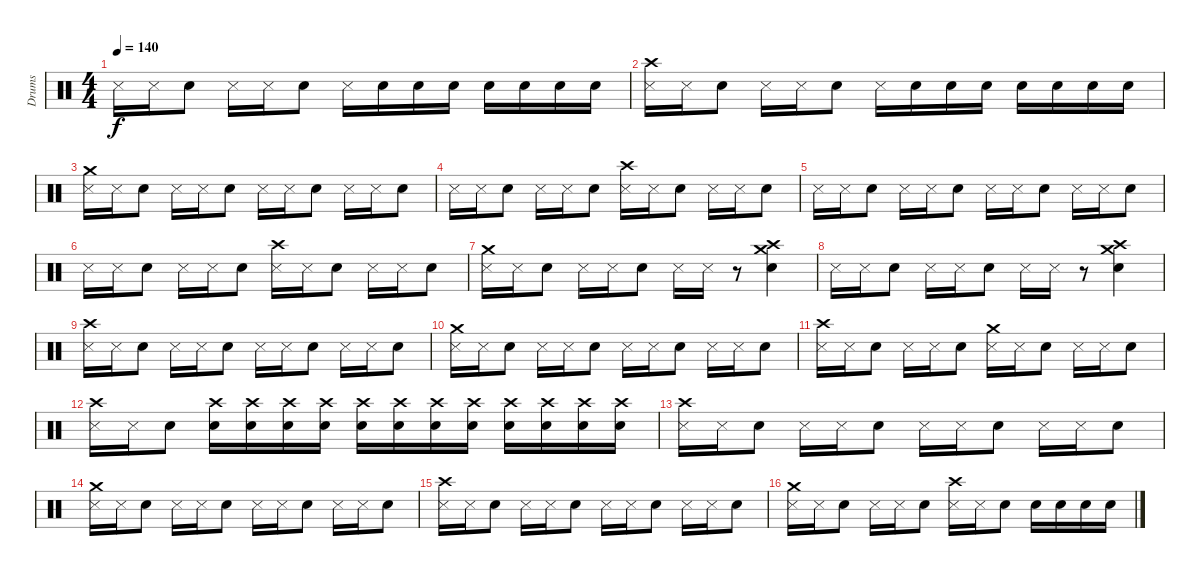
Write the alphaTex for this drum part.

\track ("Drums" "Drums") {instrument percussion}
\staff {score}
\articulation defaults
\ts (4 4)
\tempo 140
\clef neutral
\ks c "Metronome (hit)".16{dy f} "Metronome (hit)".16 "Electric Snare (hit)".8 "Metronome (hit)".16 "Metronome (hit)".16 "Electric Snare (hit)".8 "Metronome (hit)".16 "Snare (hit) 2".16 "Snare (hit) 2".16 "Snare (hit) 2".16 "Snare (hit) 2".16 "Snare (hit) 2".16 "Snare (hit) 2".16 "Snare (hit) 2".16
|
("Crash high (hit)" "Metronome (hit)").16 "Metronome (hit)".16 "Electric Snare (hit)".8 "Metronome (hit)".16 "Metronome (hit)".16 "Electric Snare (hit)".8 "Metronome (hit)".16 "Snare (hit) 2".16 "Snare (hit) 2".16 "Snare (hit) 2".16 "Snare (hit) 2".16 "Snare (hit) 2".16 "Snare (hit) 2".16 "Snare (hit) 2".16 |
("Crash medium (hit)" "Metronome (hit)").16 "Metronome (hit)".16 "Electric Snare (hit)".8 "Metronome (hit)".16 "Metronome (hit)".16 "Electric Snare (hit)".8 "Metronome (hit)".16 "Metronome (hit)".16 "Electric Snare (hit)".8 "Metronome (hit)".16 "Metronome (hit)".16 "Electric Snare (hit)".8 |
"Metronome (hit)".16 "Metronome (hit)".16 "Electric Snare (hit)".8 "Metronome (hit)".16 "Metronome (hit)".16 "Electric Snare (hit)".8 ("Crash high (hit)" "Metronome (hit)").16 "Metronome (hit)".16 "Electric Snare (hit)".8 "Metronome (hit)".16 "Metronome (hit)".16 "Electric Snare (hit)".8 |
"Metronome (hit)".16 "Metronome (hit)".16 "Electric Snare (hit)".8 "Metronome (hit)".16 "Metronome (hit)".16 "Electric Snare (hit)".8 "Metronome (hit)".16 "Metronome (hit)".16 "Electric Snare (hit)".8 "Metronome (hit)".16 "Metronome (hit)".16 "Electric Snare (hit)".8 |
"Metronome (hit)".16 "Metronome (hit)".16 "Electric Snare (hit)".8 "Metronome (hit)".16 "Metronome (hit)".16 "Electric Snare (hit)".8 ("Crash high (hit)" "Metronome (hit)").16 "Metronome (hit)".16 "Electric Snare (hit)".8 "Metronome (hit)".16 "Metronome (hit)".16 "Electric Snare (hit)".8 |
("Crash medium (hit)" "Metronome (hit)").16 "Metronome (hit)".16 "Electric Snare (hit)".8 "Metronome (hit)".16 "Metronome (hit)".16 "Electric Snare (hit)".8 "Metronome (hit)".16 "Metronome (hit)".16 r.8 ("Crash medium (hit)" "Crash high (hit)" "Electric Snare (hit)").4 |
"Metronome (hit)".16 "Metronome (hit)".16 "Electric Snare (hit)".8 "Metronome (hit)".16 "Metronome (hit)".16 "Electric Snare (hit)".8 "Metronome (hit)".16 "Metronome (hit)".16 r.8 ("Crash medium (hit)" "Crash high (hit)" "Electric Snare (hit)").4 |
("Crash high (hit)" "Metronome (hit)").16 "Metronome (hit)".16 "Electric Snare (hit)".8 "Metronome (hit)".16 "Metronome (hit)".16 "Electric Snare (hit)".8 "Metronome (hit)".16 "Metronome (hit)".16 "Electric Snare (hit)".8 "Metronome (hit)".16 "Metronome (hit)".16 "Electric Snare (hit)".8 |
("Crash medium (hit)" "Metronome (hit)").16 "Metronome (hit)".16 "Electric Snare (hit)".8 "Metronome (hit)".16 "Metronome (hit)".16 "Electric Snare (hit)".8 "Metronome (hit)".16 "Metronome (hit)".16 "Electric Snare (hit)".8 "Metronome (hit)".16 "Metronome (hit)".16 "Electric Snare (hit)".8 |
("Crash high (hit)" "Metronome (hit)").16 "Metronome (hit)".16 "Electric Snare (hit)".8 "Metronome (hit)".16 "Metronome (hit)".16 "Electric Snare (hit)".8 ("Crash medium (hit)" "Metronome (hit)").16 "Metronome (hit)".16 "Electric Snare (hit)".8 "Metronome (hit)".16 "Metronome (hit)".16 "Electric Snare (hit)".8 |
("Crash high (hit)" "Metronome (hit)").16 "Metronome (hit)".16 "Electric Snare (hit)".8 ("Crash high (hit)" "Electric Snare (hit)").16 ("Crash high (hit)" "Electric Snare (hit)").16 ("Crash high (hit)" "Electric Snare (hit)").16 ("Crash high (hit)" "Electric Snare (hit)").16 ("Crash high (hit)" "Electric Snare (hit)").16 ("Crash high (hit)" "Electric Snare (hit)").16 ("Crash high (hit)" "Electric Snare (hit)").16 ("Crash high (hit)" "Electric Snare (hit)").16 ("Crash high (hit)" "Electric Snare (hit)").16 ("Crash high (hit)" "Electric Snare (hit)").16 ("Crash high (hit)" "Electric Snare (hit)").16 ("Crash high (hit)" "Electric Snare (hit)").16 |
("Crash high (hit)" "Metronome (hit)").16 "Metronome (hit)".16 "Electric Snare (hit)".8 "Metronome (hit)".16 "Metronome (hit)".16 "Electric Snare (hit)".8 "Metronome (hit)".16 "Metronome (hit)".16 "Electric Snare (hit)".8 "Metronome (hit)".16 "Metronome (hit)".16 "Electric Snare (hit)".8 |
("Crash medium (hit)" "Metronome (hit)").16 "Metronome (hit)".16 "Electric Snare (hit)".8 "Metronome (hit)".16 "Metronome (hit)".16 "Electric Snare (hit)".8 "Metronome (hit)".16 "Metronome (hit)".16 "Electric Snare (hit)".8 "Metronome (hit)".16 "Metronome (hit)".16 "Electric Snare (hit)".8 |
("Crash high (hit)" "Metronome (hit)").16 "Metronome (hit)".16 "Electric Snare (hit)".8 "Metronome (hit)".16 "Metronome (hit)".16 "Electric Snare (hit)".8 "Metronome (hit)".16 "Metronome (hit)".16 "Electric Snare (hit)".8 "Metronome (hit)".16 "Metronome (hit)".16 "Electric Snare (hit)".8 |
("Crash medium (hit)" "Metronome (hit)").16 "Metronome (hit)".16 "Electric Snare (hit)".8 "Metronome (hit)".16 "Metronome (hit)".16 "Electric Snare (hit)".8 ("Crash high (hit)" "Metronome (hit)").16 "Metronome (hit)".16 "Electric Snare (hit)".8 "Electric Snare (hit)".16 "Electric Snare (hit)".16 "Electric Snare (hit)".16 "Electric Snare (hit)".16
